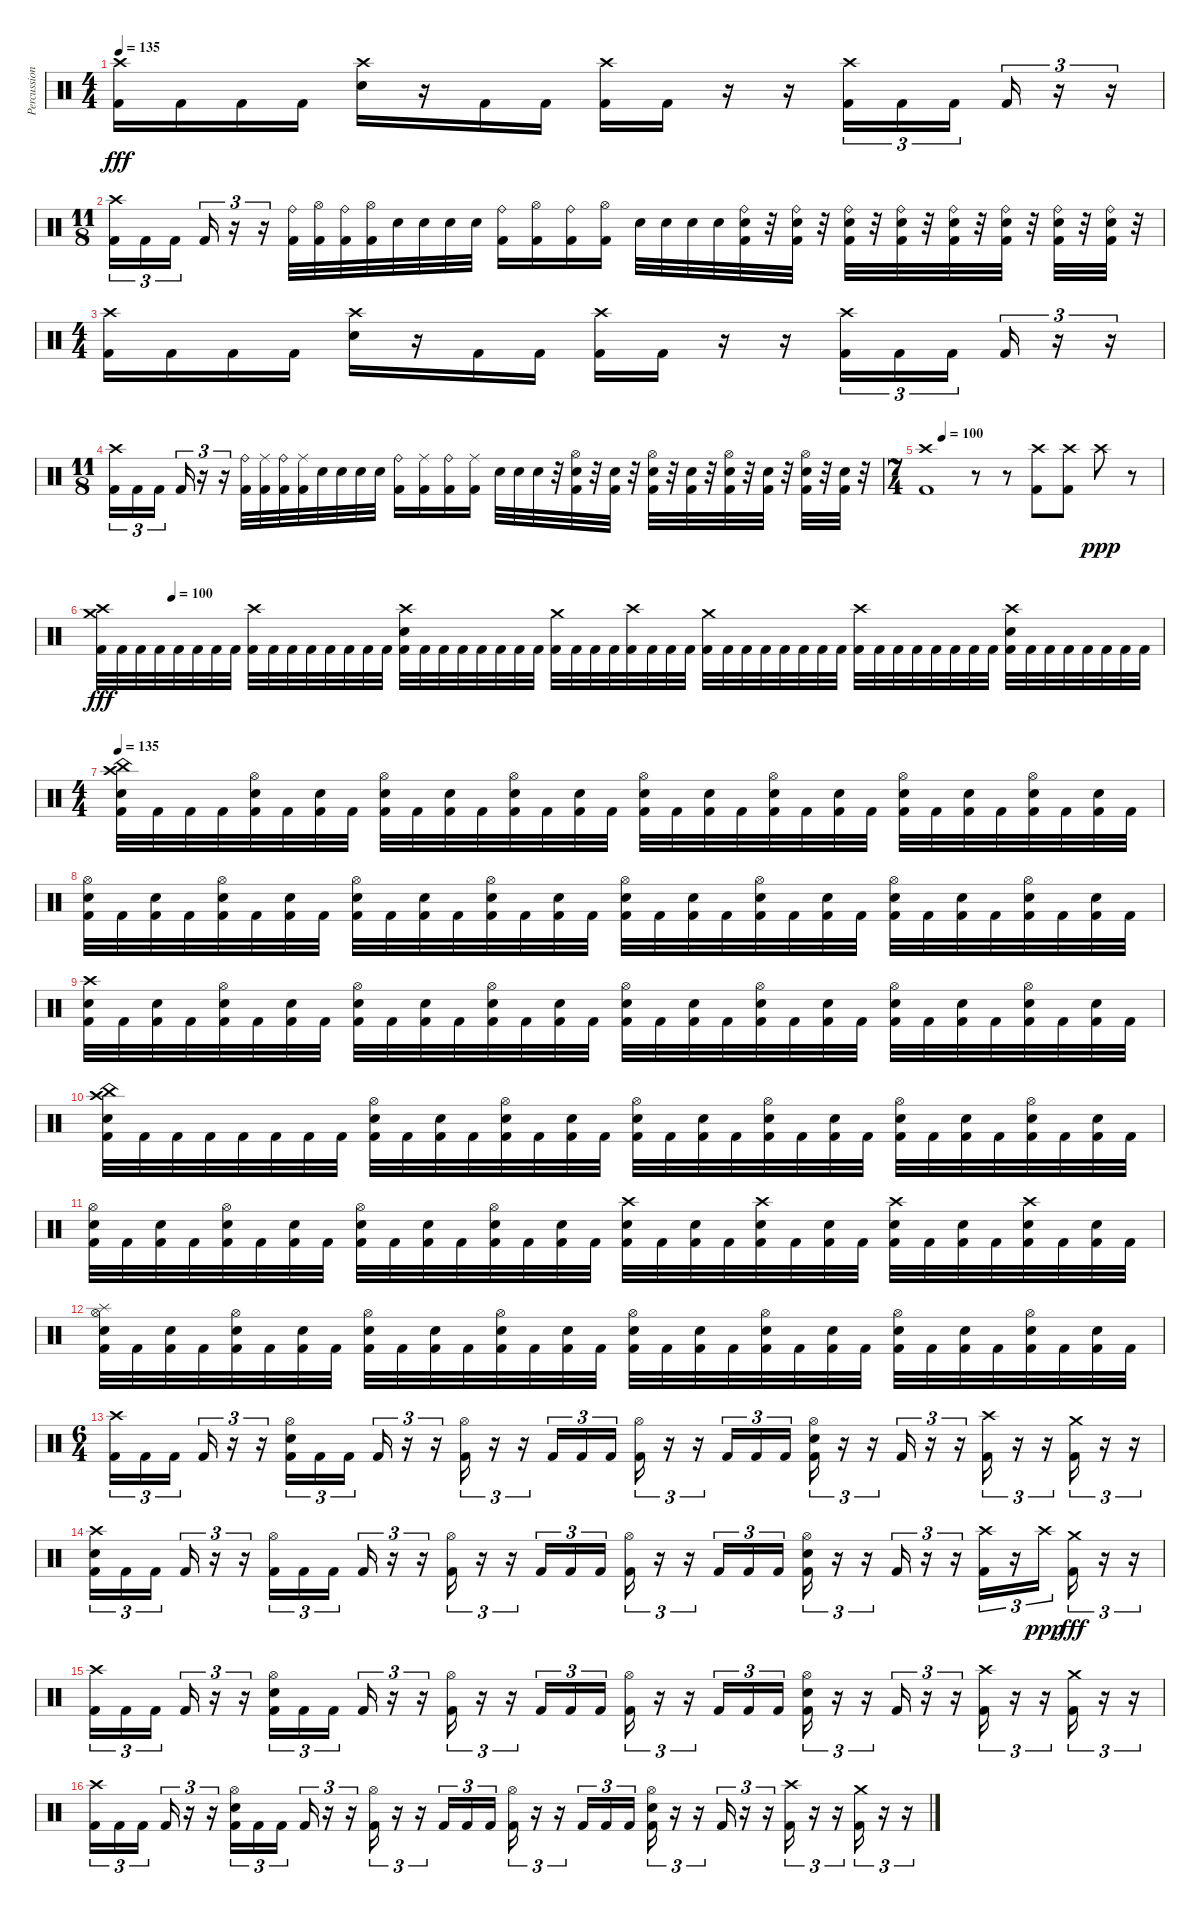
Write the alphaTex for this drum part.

\track ("Percussion" "Percussion") {instrument percussion bank 16}
\staff {score}
\articulation defaults
\ts (4 4)
\tempo 135
\clef neutral
\ks c
("Crash high (hit)" "Kick (hit) 2").16{dy fff} "Kick (hit) 2".16 "Kick (hit) 2".16 "Kick (hit) 2".16 ("Crash high (hit)" "Electric Snare (hit)").16 r.16 "Kick (hit) 2".16 "Kick (hit) 2".16 ("Crash high (hit)" "Kick (hit) 2").16 "Kick (hit) 2".16 r.16 r.16 ("Crash high (hit)" "Kick (hit) 2").16{tu (3 2)} "Kick (hit) 2".16{tu (3 2)} "Kick (hit) 2".16{tu (3 2) beam splitsecondary} "Kick (hit) 2".16{tu (3 2)} r.16{tu (3 2)} r.16{tu (3 2)} |
\ts (11 8)
("Crash high (hit)" "Kick (hit) 2").16{tu (3 2)} "Kick (hit) 2".16{tu (3 2)} "Kick (hit) 2".16{tu (3 2)} "Kick (hit) 2".16{tu (3 2)} r.16{tu (3 2)} r.16{tu (3 2)} ("Ride (bell)" "Kick (hit) 2").32 ("Hi-Hat (open)" "Kick (hit) 2").32 ("Ride (bell)" "Kick (hit) 2").32 ("Hi-Hat (open)" "Kick (hit) 2").32 "Electric Snare (hit)".32 "Electric Snare (hit)".32 "Electric Snare (hit)".32 "Electric Snare (hit)".32 ("Ride (bell)" "Kick (hit) 2").16 ("Hi-Hat (open)" "Kick (hit) 2").16 ("Ride (bell)" "Kick (hit) 2").16 ("Hi-Hat (open)" "Kick (hit) 2").16 "Electric Snare (hit)".32 "Electric Snare (hit)".32 "Electric Snare (hit)".32 "Electric Snare (hit)".32 ("Ride (bell)" "Electric Snare (hit)" "Kick (hit) 2").32 r.32 ("Ride (bell)" "Electric Snare (hit)" "Kick (hit) 2").32 r.32 ("Ride (bell)" "Electric Snare (hit)" "Kick (hit) 2").32 r.32 ("Ride (bell)" "Electric Snare (hit)" "Kick (hit) 2").32 r.32 ("Ride (bell)" "Electric Snare (hit)" "Kick (hit) 2").32 r.32 ("Ride (bell)" "Electric Snare (hit)" "Kick (hit) 2").32 r.32 ("Ride (bell)" "Electric Snare (hit)" "Kick (hit) 2").32 r.32 ("Ride (bell)" "Electric Snare (hit)" "Kick (hit) 2").32 r.32 |
\ts (4 4)
("Crash high (hit)" "Kick (hit) 2").16 "Kick (hit) 2".16 "Kick (hit) 2".16 "Kick (hit) 2".16 ("Crash high (hit)" "Electric Snare (hit)").16 r.16 "Kick (hit) 2".16 "Kick (hit) 2".16 ("Crash high (hit)" "Kick (hit) 2").16 "Kick (hit) 2".16 r.16 r.16 ("Crash high (hit)" "Kick (hit) 2").16{tu (3 2)} "Kick (hit) 2".16{tu (3 2)} "Kick (hit) 2".16{tu (3 2) beam splitsecondary} "Kick (hit) 2".16{tu (3 2)} r.16{tu (3 2)} r.16{tu (3 2)} |
\ts (11 8)
("Crash high (hit)" "Kick (hit) 2").16{tu (3 2)} "Kick (hit) 2".16{tu (3 2)} "Kick (hit) 2".16{tu (3 2)} "Kick (hit) 2".16{tu (3 2)} r.16{tu (3 2)} r.16{tu (3 2)} ("Ride (bell)" "Kick (hit) 2").32 ("Ride (middle)" "Kick (hit) 2").32 ("Ride (bell)" "Kick (hit) 2").32 ("Ride (middle)" "Kick (hit) 2").32 "Electric Snare (hit)".32 "Electric Snare (hit)".32 "Electric Snare (hit)".32 "Electric Snare (hit)".32 ("Ride (bell)" "Kick (hit) 2").16 ("Ride (middle)" "Kick (hit) 2").16 ("Ride (bell)" "Kick (hit) 2").16 ("Ride (middle)" "Kick (hit) 2").16 "Electric Snare (hit)".32 "Electric Snare (hit)".32 "Electric Snare (hit)".32 r.32 ("Hi-Hat (open)" "Electric Snare (hit)" "Kick (hit) 2").32 r.32 ("Electric Snare (hit)" "Kick (hit) 2").32 r.32 ("Hi-Hat (open)" "Electric Snare (hit)" "Kick (hit) 2").32 r.32 ("Electric Snare (hit)" "Kick (hit) 2").32 r.32 ("Hi-Hat (open)" "Electric Snare (hit)" "Kick (hit) 2").32 r.32 ("Electric Snare (hit)" "Kick (hit) 2").32 r.32 ("Hi-Hat (open)" "Electric Snare (hit)" "Kick (hit) 2").32 r.32 ("Electric Snare (hit)" "Kick (hit) 2").32 r.32 |
\ts (7 4)
\tempo (100 0.07142857142857142)
("Crash high (hit)" "Kick (hit) 2").1 r.8 r.8 ("Crash high (hit)" "Kick (hit) 2").8 ("Crash high (hit)" "Kick (hit) 2").8 "Crash high (hit)".8{dy ppp} r.8 |
\tempo (100 0.07142857142857142)
("Crash high (hit)" "Crash medium (hit)" "Kick (hit) 2").32{dy fff} "Kick (hit) 2".32 "Kick (hit) 2".32 "Kick (hit) 2".32 "Kick (hit) 2".32 "Kick (hit) 2".32 "Kick (hit) 2".32 "Kick (hit) 2".32 ("Crash high (hit)" "Kick (hit) 2").32 "Kick (hit) 2".32 "Kick (hit) 2".32 "Kick (hit) 2".32 "Kick (hit) 2".32 "Kick (hit) 2".32 "Kick (hit) 2".32 "Kick (hit) 2".32 ("Crash high (hit)" "Electric Snare (hit)" "Kick (hit) 2").32 "Kick (hit) 2".32 "Kick (hit) 2".32 "Kick (hit) 2".32 "Kick (hit) 2".32 "Kick (hit) 2".32 "Kick (hit) 2".32 "Kick (hit) 2".32 ("Crash medium (hit)" "Kick (hit) 2").32 "Kick (hit) 2".32 "Kick (hit) 2".32 "Kick (hit) 2".32 ("Crash high (hit)" "Kick (hit) 2").32 "Kick (hit) 2".32 "Kick (hit) 2".32 "Kick (hit) 2".32 ("Crash medium (hit)" "Kick (hit) 2").32 "Kick (hit) 2".32 "Kick (hit) 2".32 "Kick (hit) 2".32 "Kick (hit) 2".32 "Kick (hit) 2".32 "Kick (hit) 2".32 "Kick (hit) 2".32 ("Crash high (hit)" "Kick (hit) 2").32 "Kick (hit) 2".32 "Kick (hit) 2".32 "Kick (hit) 2".32 "Kick (hit) 2".32 "Kick (hit) 2".32 "Kick (hit) 2".32 "Kick (hit) 2".32 ("Crash high (hit)" "Electric Snare (hit)" "Kick (hit) 2").32 "Kick (hit) 2".32 "Kick (hit) 2".32 "Kick (hit) 2".32 "Kick (hit) 2".32 "Kick (hit) 2".32 "Kick (hit) 2".32 "Kick (hit) 2".32 |
\ts (4 4)
\tempo 135
("Crash high (hit)" "China (hit)" "Electric Snare (hit)" "Kick (hit) 2").32 "Kick (hit) 2".32 "Kick (hit) 2".32 "Kick (hit) 2".32 ("Hi-Hat (open)" "Electric Snare (hit)" "Kick (hit) 2").32 "Kick (hit) 2".32 ("Electric Snare (hit)" "Kick (hit) 2").32 "Kick (hit) 2".32 ("Hi-Hat (open)" "Electric Snare (hit)" "Kick (hit) 2").32 "Kick (hit) 2".32 ("Electric Snare (hit)" "Kick (hit) 2").32 "Kick (hit) 2".32 ("Hi-Hat (open)" "Electric Snare (hit)" "Kick (hit) 2").32 "Kick (hit) 2".32 ("Electric Snare (hit)" "Kick (hit) 2").32 "Kick (hit) 2".32 ("Hi-Hat (open)" "Electric Snare (hit)" "Kick (hit) 2").32 "Kick (hit) 2".32 ("Electric Snare (hit)" "Kick (hit) 2").32 "Kick (hit) 2".32 ("Hi-Hat (open)" "Electric Snare (hit)" "Kick (hit) 2").32 "Kick (hit) 2".32 ("Electric Snare (hit)" "Kick (hit) 2").32 "Kick (hit) 2".32 ("Hi-Hat (open)" "Electric Snare (hit)" "Kick (hit) 2").32 "Kick (hit) 2".32 ("Electric Snare (hit)" "Kick (hit) 2").32 "Kick (hit) 2".32 ("Hi-Hat (open)" "Electric Snare (hit)" "Kick (hit) 2").32 "Kick (hit) 2".32 ("Electric Snare (hit)" "Kick (hit) 2").32 "Kick (hit) 2".32 |
("Hi-Hat (open)" "Electric Snare (hit)" "Kick (hit) 2").32 "Kick (hit) 2".32 ("Electric Snare (hit)" "Kick (hit) 2").32 "Kick (hit) 2".32 ("Hi-Hat (open)" "Electric Snare (hit)" "Kick (hit) 2").32 "Kick (hit) 2".32 ("Electric Snare (hit)" "Kick (hit) 2").32 "Kick (hit) 2".32 ("Hi-Hat (open)" "Electric Snare (hit)" "Kick (hit) 2").32 "Kick (hit) 2".32 ("Electric Snare (hit)" "Kick (hit) 2").32 "Kick (hit) 2".32 ("Hi-Hat (open)" "Electric Snare (hit)" "Kick (hit) 2").32 "Kick (hit) 2".32 ("Electric Snare (hit)" "Kick (hit) 2").32 "Kick (hit) 2".32 ("Hi-Hat (open)" "Electric Snare (hit)" "Kick (hit) 2").32 "Kick (hit) 2".32 ("Electric Snare (hit)" "Kick (hit) 2").32 "Kick (hit) 2".32 ("Hi-Hat (open)" "Electric Snare (hit)" "Kick (hit) 2").32 "Kick (hit) 2".32 ("Electric Snare (hit)" "Kick (hit) 2").32 "Kick (hit) 2".32 ("Hi-Hat (open)" "Electric Snare (hit)" "Kick (hit) 2").32 "Kick (hit) 2".32 ("Electric Snare (hit)" "Kick (hit) 2").32 "Kick (hit) 2".32 ("Hi-Hat (open)" "Electric Snare (hit)" "Kick (hit) 2").32 "Kick (hit) 2".32 ("Electric Snare (hit)" "Kick (hit) 2").32 "Kick (hit) 2".32 |
("Crash high (hit)" "Electric Snare (hit)" "Kick (hit) 2").32 "Kick (hit) 2".32 ("Electric Snare (hit)" "Kick (hit) 2").32 "Kick (hit) 2".32 ("Hi-Hat (open)" "Electric Snare (hit)" "Kick (hit) 2").32 "Kick (hit) 2".32 ("Electric Snare (hit)" "Kick (hit) 2").32 "Kick (hit) 2".32 ("Hi-Hat (open)" "Electric Snare (hit)" "Kick (hit) 2").32 "Kick (hit) 2".32 ("Electric Snare (hit)" "Kick (hit) 2").32 "Kick (hit) 2".32 ("Hi-Hat (open)" "Electric Snare (hit)" "Kick (hit) 2").32 "Kick (hit) 2".32 ("Electric Snare (hit)" "Kick (hit) 2").32 "Kick (hit) 2".32 ("Hi-Hat (open)" "Electric Snare (hit)" "Kick (hit) 2").32 "Kick (hit) 2".32 ("Electric Snare (hit)" "Kick (hit) 2").32 "Kick (hit) 2".32 ("Hi-Hat (open)" "Electric Snare (hit)" "Kick (hit) 2").32 "Kick (hit) 2".32 ("Electric Snare (hit)" "Kick (hit) 2").32 "Kick (hit) 2".32 ("Hi-Hat (open)" "Electric Snare (hit)" "Kick (hit) 2").32 "Kick (hit) 2".32 ("Electric Snare (hit)" "Kick (hit) 2").32 "Kick (hit) 2".32 ("Hi-Hat (open)" "Electric Snare (hit)" "Kick (hit) 2").32 "Kick (hit) 2".32 ("Electric Snare (hit)" "Kick (hit) 2").32 "Kick (hit) 2".32 |
("Crash high (hit)" "China (hit)" "Electric Snare (hit)" "Kick (hit) 2").32 "Kick (hit) 2".32 "Kick (hit) 2".32 "Kick (hit) 2".32 "Kick (hit) 2".32 "Kick (hit) 2".32 "Kick (hit) 2".32 "Kick (hit) 2".32 ("Hi-Hat (open)" "Electric Snare (hit)" "Kick (hit) 2").32 "Kick (hit) 2".32 ("Electric Snare (hit)" "Kick (hit) 2").32 "Kick (hit) 2".32 ("Hi-Hat (open)" "Electric Snare (hit)" "Kick (hit) 2").32 "Kick (hit) 2".32 ("Electric Snare (hit)" "Kick (hit) 2").32 "Kick (hit) 2".32 ("Hi-Hat (open)" "Electric Snare (hit)" "Kick (hit) 2").32 "Kick (hit) 2".32 ("Electric Snare (hit)" "Kick (hit) 2").32 "Kick (hit) 2".32 ("Hi-Hat (open)" "Electric Snare (hit)" "Kick (hit) 2").32 "Kick (hit) 2".32 ("Electric Snare (hit)" "Kick (hit) 2").32 "Kick (hit) 2".32 ("Hi-Hat (open)" "Electric Snare (hit)" "Kick (hit) 2").32 "Kick (hit) 2".32 ("Electric Snare (hit)" "Kick (hit) 2").32 "Kick (hit) 2".32 ("Hi-Hat (open)" "Electric Snare (hit)" "Kick (hit) 2").32 "Kick (hit) 2".32 ("Electric Snare (hit)" "Kick (hit) 2").32 "Kick (hit) 2".32 |
("Hi-Hat (open)" "Electric Snare (hit)" "Kick (hit) 2").32 "Kick (hit) 2".32 ("Electric Snare (hit)" "Kick (hit) 2").32 "Kick (hit) 2".32 ("Hi-Hat (open)" "Electric Snare (hit)" "Kick (hit) 2").32 "Kick (hit) 2".32 ("Electric Snare (hit)" "Kick (hit) 2").32 "Kick (hit) 2".32 ("Hi-Hat (open)" "Electric Snare (hit)" "Kick (hit) 2").32 "Kick (hit) 2".32 ("Electric Snare (hit)" "Kick (hit) 2").32 "Kick (hit) 2".32 ("Hi-Hat (open)" "Electric Snare (hit)" "Kick (hit) 2").32 "Kick (hit) 2".32 ("Electric Snare (hit)" "Kick (hit) 2").32 "Kick (hit) 2".32 ("Crash high (hit)" "Electric Snare (hit)" "Kick (hit) 2").32 "Kick (hit) 2".32 ("Electric Snare (hit)" "Kick (hit) 2").32 "Kick (hit) 2".32 ("Crash high (hit)" "Electric Snare (hit)" "Kick (hit) 2").32 "Kick (hit) 2".32 ("Electric Snare (hit)" "Kick (hit) 2").32 "Kick (hit) 2".32 ("Crash high (hit)" "Electric Snare (hit)" "Kick (hit) 2").32 "Kick (hit) 2".32 ("Electric Snare (hit)" "Kick (hit) 2").32 "Kick (hit) 2".32 ("Crash high (hit)" "Electric Snare (hit)" "Kick (hit) 2").32 "Kick (hit) 2".32 ("Electric Snare (hit)" "Kick (hit) 2").32 "Kick (hit) 2".32 |
("Hi-Hat (open)" "Splash (hit)" "Electric Snare (hit)" "Kick (hit) 2").32 "Kick (hit) 2".32 ("Electric Snare (hit)" "Kick (hit) 2").32 "Kick (hit) 2".32 ("Hi-Hat (open)" "Electric Snare (hit)" "Kick (hit) 2").32 "Kick (hit) 2".32 ("Electric Snare (hit)" "Kick (hit) 2").32 "Kick (hit) 2".32 ("Hi-Hat (open)" "Electric Snare (hit)" "Kick (hit) 2").32 "Kick (hit) 2".32 ("Electric Snare (hit)" "Kick (hit) 2").32 "Kick (hit) 2".32 ("Hi-Hat (open)" "Electric Snare (hit)" "Kick (hit) 2").32 "Kick (hit) 2".32 ("Electric Snare (hit)" "Kick (hit) 2").32 "Kick (hit) 2".32 ("Hi-Hat (open)" "Electric Snare (hit)" "Kick (hit) 2").32 "Kick (hit) 2".32 ("Electric Snare (hit)" "Kick (hit) 2").32 "Kick (hit) 2".32 ("Hi-Hat (open)" "Electric Snare (hit)" "Kick (hit) 2").32 "Kick (hit) 2".32 ("Electric Snare (hit)" "Kick (hit) 2").32 "Kick (hit) 2".32 ("Hi-Hat (open)" "Electric Snare (hit)" "Kick (hit) 2").32 "Kick (hit) 2".32 ("Electric Snare (hit)" "Kick (hit) 2").32 "Kick (hit) 2".32 ("Hi-Hat (open)" "Electric Snare (hit)" "Kick (hit) 2").32 "Kick (hit) 2".32 ("Electric Snare (hit)" "Kick (hit) 2").32 "Kick (hit) 2".32 |
\ts (6 4)
("Crash high (hit)" "Kick (hit) 2").16{tu (3 2)} "Kick (hit) 2".16{tu (3 2)} "Kick (hit) 2".16{tu (3 2) beam splitsecondary} "Kick (hit) 2".16{tu (3 2)} r.16{tu (3 2)} r.16{tu (3 2)} ("Hi-Hat (open)" "Electric Snare (hit)" "Kick (hit) 2").16{tu (3 2)} "Kick (hit) 2".16{tu (3 2)} "Kick (hit) 2".16{tu (3 2) beam splitsecondary} "Kick (hit) 2".16{tu (3 2)} r.16{tu (3 2)} r.16{tu (3 2)} ("Hi-Hat (open)" "Kick (hit) 2").16{tu (3 2)} r.16{tu (3 2)} r.16{tu (3 2)} "Kick (hit) 2".16{tu (3 2)} "Kick (hit) 2".16{tu (3 2)} "Kick (hit) 2".16{tu (3 2)} ("Hi-Hat (open)" "Kick (hit) 2").16{tu (3 2)} r.16{tu (3 2)} r.16{tu (3 2)} "Kick (hit) 2".16{tu (3 2)} "Kick (hit) 2".16{tu (3 2)} "Kick (hit) 2".16{tu (3 2) beam splitsecondary} ("Hi-Hat (open)" "Electric Snare (hit)" "Kick (hit) 2").16{tu (3 2)} r.16{tu (3 2)} r.16{tu (3 2)} "Kick (hit) 2".16{tu (3 2)} r.16{tu (3 2)} r.16{tu (3 2)} ("Crash high (hit)" "Kick (hit) 2").16{tu (3 2)} r.16{tu (3 2)} r.16{tu (3 2)} ("Crash medium (hit)" "Kick (hit) 2").16{tu (3 2)} r.16{tu (3 2)} r.16{tu (3 2)} |
("Crash high (hit)" "Electric Snare (hit)" "Kick (hit) 2").16{tu (3 2)} "Kick (hit) 2".16{tu (3 2)} "Kick (hit) 2".16{tu (3 2) beam splitsecondary} "Kick (hit) 2".16{tu (3 2)} r.16{tu (3 2)} r.16{tu (3 2)} ("Hi-Hat (open)" "Kick (hit) 2").16{tu (3 2)} "Kick (hit) 2".16{tu (3 2)} "Kick (hit) 2".16{tu (3 2) beam splitsecondary} "Kick (hit) 2".16{tu (3 2)} r.16{tu (3 2)} r.16{tu (3 2)} ("Hi-Hat (open)" "Kick (hit) 2").16{tu (3 2)} r.16{tu (3 2)} r.16{tu (3 2)} "Kick (hit) 2".16{tu (3 2)} "Kick (hit) 2".16{tu (3 2)} "Kick (hit) 2".16{tu (3 2)} ("Hi-Hat (open)" "Kick (hit) 2").16{tu (3 2)} r.16{tu (3 2)} r.16{tu (3 2)} "Kick (hit) 2".16{tu (3 2)} "Kick (hit) 2".16{tu (3 2)} "Kick (hit) 2".16{tu (3 2) beam splitsecondary} ("Hi-Hat (open)" "Electric Snare (hit)" "Kick (hit) 2").16{tu (3 2)} r.16{tu (3 2)} r.16{tu (3 2)} "Kick (hit) 2".16{tu (3 2)} r.16{tu (3 2)} r.16{tu (3 2)} ("Crash high (hit)" "Kick (hit) 2").16{tu (3 2)} r.16{tu (3 2)} "Crash high (hit)".16{tu (3 2) dy ppp} ("Crash medium (hit)" "Kick (hit) 2").16{tu (3 2) dy fff} r.16{tu (3 2)} r.16{tu (3 2)} |
("Crash high (hit)" "Kick (hit) 2").16{tu (3 2)} "Kick (hit) 2".16{tu (3 2)} "Kick (hit) 2".16{tu (3 2) beam splitsecondary} "Kick (hit) 2".16{tu (3 2)} r.16{tu (3 2)} r.16{tu (3 2)} ("Hi-Hat (open)" "Electric Snare (hit)" "Kick (hit) 2").16{tu (3 2)} "Kick (hit) 2".16{tu (3 2)} "Kick (hit) 2".16{tu (3 2) beam splitsecondary} "Kick (hit) 2".16{tu (3 2)} r.16{tu (3 2)} r.16{tu (3 2)} ("Hi-Hat (open)" "Kick (hit) 2").16{tu (3 2)} r.16{tu (3 2)} r.16{tu (3 2)} "Kick (hit) 2".16{tu (3 2)} "Kick (hit) 2".16{tu (3 2)} "Kick (hit) 2".16{tu (3 2)} ("Hi-Hat (open)" "Kick (hit) 2").16{tu (3 2)} r.16{tu (3 2)} r.16{tu (3 2)} "Kick (hit) 2".16{tu (3 2)} "Kick (hit) 2".16{tu (3 2)} "Kick (hit) 2".16{tu (3 2) beam splitsecondary} ("Hi-Hat (open)" "Electric Snare (hit)" "Kick (hit) 2").16{tu (3 2)} r.16{tu (3 2)} r.16{tu (3 2)} "Kick (hit) 2".16{tu (3 2)} r.16{tu (3 2)} r.16{tu (3 2)} ("Crash high (hit)" "Kick (hit) 2").16{tu (3 2)} r.16{tu (3 2)} r.16{tu (3 2)} ("Crash medium (hit)" "Kick (hit) 2").16{tu (3 2)} r.16{tu (3 2)} r.16{tu (3 2)} |
("Crash high (hit)" "Kick (hit) 2").16{tu (3 2)} "Kick (hit) 2".16{tu (3 2)} "Kick (hit) 2".16{tu (3 2) beam splitsecondary} "Kick (hit) 2".16{tu (3 2)} r.16{tu (3 2)} r.16{tu (3 2)} ("Hi-Hat (open)" "Electric Snare (hit)" "Kick (hit) 2").16{tu (3 2)} "Kick (hit) 2".16{tu (3 2)} "Kick (hit) 2".16{tu (3 2) beam splitsecondary} "Kick (hit) 2".16{tu (3 2)} r.16{tu (3 2)} r.16{tu (3 2)} ("Hi-Hat (open)" "Kick (hit) 2").16{tu (3 2)} r.16{tu (3 2)} r.16{tu (3 2)} "Kick (hit) 2".16{tu (3 2)} "Kick (hit) 2".16{tu (3 2)} "Kick (hit) 2".16{tu (3 2)} ("Hi-Hat (open)" "Kick (hit) 2").16{tu (3 2)} r.16{tu (3 2)} r.16{tu (3 2)} "Kick (hit) 2".16{tu (3 2)} "Kick (hit) 2".16{tu (3 2)} "Kick (hit) 2".16{tu (3 2) beam splitsecondary} ("Hi-Hat (open)" "Electric Snare (hit)" "Kick (hit) 2").16{tu (3 2)} r.16{tu (3 2)} r.16{tu (3 2)} "Kick (hit) 2".16{tu (3 2)} r.16{tu (3 2)} r.16{tu (3 2)} ("Crash high (hit)" "Kick (hit) 2").16{tu (3 2)} r.16{tu (3 2)} r.16{tu (3 2)} ("Crash medium (hit)" "Kick (hit) 2").16{tu (3 2)} r.16{tu (3 2)} r.16{tu (3 2)}
